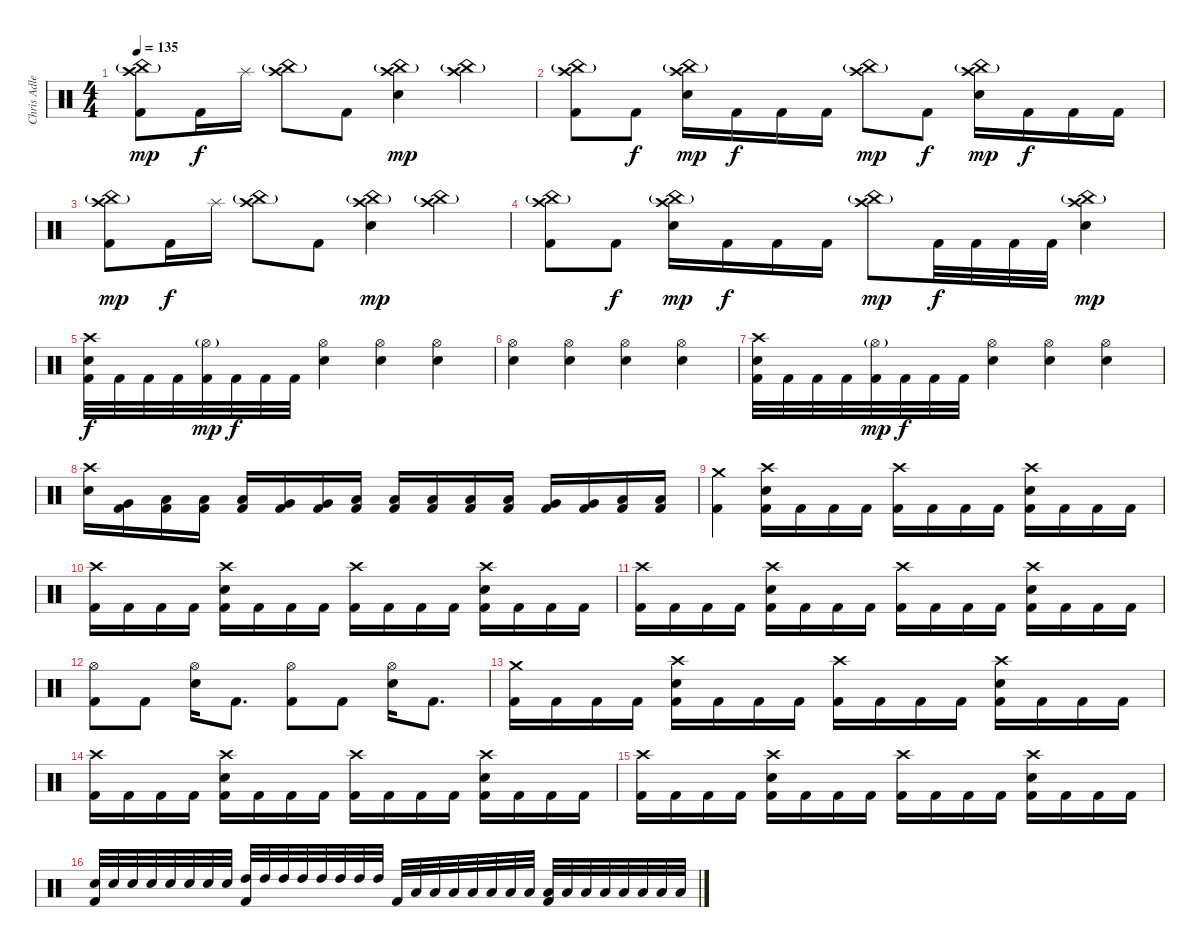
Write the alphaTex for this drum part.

\track ("Chris Adler Drums)" "Chris Adle") {instrument percussion}
\staff {score}
\articulation defaults
\ts (4 4)
\tempo 135
\clef neutral
\ks c
("Crash high (hit)" "China (hit)"{g} "Kick (hit) 2").8{dy mp} "Kick (hit) 2".16{dy f} "Splash (hit)".16 ("Crash high (hit)" "China (hit)"{g}).8 "Kick (hit) 2".8 ("Crash high (hit)" "China (hit)"{g} "Snare (hit) 2").4{dy mp} ("Crash high (hit)" "China (hit)"{g}).4 |
("Crash high (hit)" "China (hit)"{g} "Kick (hit) 2").8 "Kick (hit) 2".8{dy f} ("Crash high (hit)" "China (hit)"{g} "Snare (hit) 2").16{dy mp} "Kick (hit) 2".16{dy f} "Kick (hit) 2".16 "Kick (hit) 2".16 ("Crash high (hit)" "China (hit)"{g}).8{dy mp} "Kick (hit) 2".8{dy f} ("Crash high (hit)" "China (hit)"{g} "Snare (hit) 2").16{dy mp} "Kick (hit) 2".16{dy f} "Kick (hit) 2".16 "Kick (hit) 2".16 |
("Crash high (hit)" "China (hit)"{g} "Kick (hit) 2").8{dy mp} "Kick (hit) 2".16{dy f} "Splash (hit)".16 ("Crash high (hit)" "China (hit)"{g}).8 "Kick (hit) 2".8 ("Crash high (hit)" "China (hit)"{g} "Snare (hit) 2").4{dy mp} ("Crash high (hit)" "China (hit)"{g}).4 |
("China (hit)"{g} "Crash high (hit)" "Kick (hit) 2").8 "Kick (hit) 2".8{dy f} ("China (hit)"{g} "Crash high (hit)" "Snare (hit) 2").16{dy mp} "Kick (hit) 2".16{dy f} "Kick (hit) 2".16 "Kick (hit) 2".16 ("China (hit)"{g} "Crash high (hit)").8{dy mp} "Kick (hit) 2".32{dy f} "Kick (hit) 2".32 "Kick (hit) 2".32 "Kick (hit) 2".32 ("China (hit)"{g} "Crash high (hit)" "Snare (hit) 2").4{dy mp} |
("Crash high (hit)" "Snare (hit) 2" "Kick (hit) 2").32{dy f} "Kick (hit) 2".32 "Kick (hit) 2".32 "Kick (hit) 2".32 ("Hi-Hat (open)"{g} "Kick (hit) 2").32{dy mp} "Kick (hit) 2".32{dy f} "Kick (hit) 2".32 "Kick (hit) 2".32 ("Hi-Hat (open)" "Snare (hit) 2").4 ("Hi-Hat (open)" "Snare (hit) 2").4 ("Hi-Hat (open)" "Snare (hit) 2").4 |
("Hi-Hat (open)" "Snare (hit) 2").4 ("Hi-Hat (open)" "Snare (hit) 2").4 ("Hi-Hat (open)" "Snare (hit) 2").4 ("Hi-Hat (open)" "Snare (hit) 2").4 |
("Crash high (hit)" "Snare (hit) 2" "Kick (hit) 2").32 "Kick (hit) 2".32 "Kick (hit) 2".32 "Kick (hit) 2".32 ("Hi-Hat (open)"{g} "Kick (hit) 2").32{dy mp} "Kick (hit) 2".32{dy f} "Kick (hit) 2".32 "Kick (hit) 2".32 ("Hi-Hat (open)" "Snare (hit) 2").4 ("Hi-Hat (open)" "Snare (hit) 2").4 ("Hi-Hat (open)" "Snare (hit) 2").4 |
("Crash high (hit)" "Snare (hit) 2").16 ("Kick (hit) 2" "Very Low Tom (hit)").16 ("Kick (hit) 2" "Low Floor Tom (hit)").16 ("Kick (hit) 2" "Low Floor Tom (hit)").16 ("Kick (hit) 2" "Low Floor Tom (hit)").16 ("Kick (hit) 2" "Very Low Tom (hit)").16 ("Kick (hit) 2" "Very Low Tom (hit)").16 ("Kick (hit) 2" "Low Floor Tom (hit)").16 ("Kick (hit) 2" "Low Floor Tom (hit)").16 ("Kick (hit) 2" "Low Floor Tom (hit)").16 ("Kick (hit) 2" "Low Floor Tom (hit)").16 ("Kick (hit) 2" "Low Floor Tom (hit)").16 ("Kick (hit) 2" "Very Low Tom (hit)").16 ("Kick (hit) 2" "Very Low Tom (hit)").16 ("Kick (hit) 2" "Low Floor Tom (hit)").16 ("Kick (hit) 2" "Low Floor Tom (hit)").16 |
("Crash medium (hit)" "Kick (hit) 2").4 ("Crash high (hit)" "Kick (hit) 2" "Snare (hit) 2").16 "Kick (hit) 2".16 "Kick (hit) 2".16 "Kick (hit) 2".16 ("Crash high (hit)" "Kick (hit) 2").16 "Kick (hit) 2".16 "Kick (hit) 2".16 "Kick (hit) 2".16 ("Crash high (hit)" "Snare (hit) 2" "Kick (hit) 2").16 "Kick (hit) 2".16 "Kick (hit) 2".16 "Kick (hit) 2".16 |
("Crash high (hit)" "Kick (hit) 2").16 "Kick (hit) 2".16 "Kick (hit) 2".16 "Kick (hit) 2".16 ("Crash high (hit)" "Snare (hit) 2" "Kick (hit) 2").16 "Kick (hit) 2".16 "Kick (hit) 2".16 "Kick (hit) 2".16 ("Crash high (hit)" "Kick (hit) 2").16 "Kick (hit) 2".16 "Kick (hit) 2".16 "Kick (hit) 2".16 ("Crash high (hit)" "Snare (hit) 2" "Kick (hit) 2").16 "Kick (hit) 2".16 "Kick (hit) 2".16 "Kick (hit) 2".16 |
("Crash high (hit)" "Kick (hit) 2").16 "Kick (hit) 2".16 "Kick (hit) 2".16 "Kick (hit) 2".16 ("Crash high (hit)" "Snare (hit) 2" "Kick (hit) 2").16 "Kick (hit) 2".16 "Kick (hit) 2".16 "Kick (hit) 2".16 ("Crash high (hit)" "Kick (hit) 2").16 "Kick (hit) 2".16 "Kick (hit) 2".16 "Kick (hit) 2".16 ("Crash high (hit)" "Snare (hit) 2" "Kick (hit) 2").16 "Kick (hit) 2".16 "Kick (hit) 2".16 "Kick (hit) 2".16 |
("Hi-Hat (open)" "Kick (hit) 2").8 "Kick (hit) 2".8 ("Hi-Hat (open)" "Snare (hit) 2").16 "Kick (hit) 2".8{d} ("Hi-Hat (open)" "Kick (hit) 2").8 "Kick (hit) 2".8 ("Hi-Hat (open)" "Snare (hit) 2").16 "Kick (hit) 2".8{d} |
("Crash medium (hit)" "Kick (hit) 2").16 "Kick (hit) 2".16 "Kick (hit) 2".16 "Kick (hit) 2".16 ("Crash high (hit)" "Snare (hit) 2" "Kick (hit) 2").16 "Kick (hit) 2".16 "Kick (hit) 2".16 "Kick (hit) 2".16 ("Crash high (hit)" "Kick (hit) 2").16 "Kick (hit) 2".16 "Kick (hit) 2".16 "Kick (hit) 2".16 ("Crash high (hit)" "Snare (hit) 2" "Kick (hit) 2").16 "Kick (hit) 2".16 "Kick (hit) 2".16 "Kick (hit) 2".16 |
("Crash high (hit)" "Kick (hit) 2").16 "Kick (hit) 2".16 "Kick (hit) 2".16 "Kick (hit) 2".16 ("Crash high (hit)" "Snare (hit) 2" "Kick (hit) 2").16 "Kick (hit) 2".16 "Kick (hit) 2".16 "Kick (hit) 2".16 ("Crash high (hit)" "Kick (hit) 2").16 "Kick (hit) 2".16 "Kick (hit) 2".16 "Kick (hit) 2".16 ("Crash high (hit)" "Snare (hit) 2" "Kick (hit) 2").16 "Kick (hit) 2".16 "Kick (hit) 2".16 "Kick (hit) 2".16 |
("Crash high (hit)" "Kick (hit) 2").16 "Kick (hit) 2".16 "Kick (hit) 2".16 "Kick (hit) 2".16 ("Crash high (hit)" "Snare (hit) 2" "Kick (hit) 2").16 "Kick (hit) 2".16 "Kick (hit) 2".16 "Kick (hit) 2".16 ("Crash high (hit)" "Kick (hit) 2").16 "Kick (hit) 2".16 "Kick (hit) 2".16 "Kick (hit) 2".16 ("Crash high (hit)" "Snare (hit) 2" "Kick (hit) 2").16 "Kick (hit) 2".16 "Kick (hit) 2".16 "Kick (hit) 2".16 |
("Snare (hit) 2" "Kick (hit) 2").32 "Snare (hit) 2".32 "Snare (hit) 2".32 "Snare (hit) 2".32 "Snare (hit) 2".32 "Snare (hit) 2".32 "Snare (hit) 2".32 "Snare (hit) 2".32 ("High Tom (hit)" "Kick (hit) 2").32 "High Tom (hit)".32 "High Tom (hit)".32 "High Tom (hit)".32 "High Tom (hit)".32 "High Tom (hit)".32 "High Tom (hit)".32 "High Tom (hit)".32 "Kick (hit) 2".32 "Low Tom (hit)".32 "Low Tom (hit)".32 "Low Tom (hit)".32 "Low Tom (hit)".32 "Low Tom (hit)".32 "Low Tom (hit)".32 "Low Tom (hit)".32 ("Low Floor Tom (hit)" "Kick (hit) 2").32 "Low Floor Tom (hit)".32 "Low Floor Tom (hit)".32 "Low Floor Tom (hit)".32 "Low Floor Tom (hit)".32 "Low Floor Tom (hit)".32 "Low Floor Tom (hit)".32 "Low Floor Tom (hit)".32
